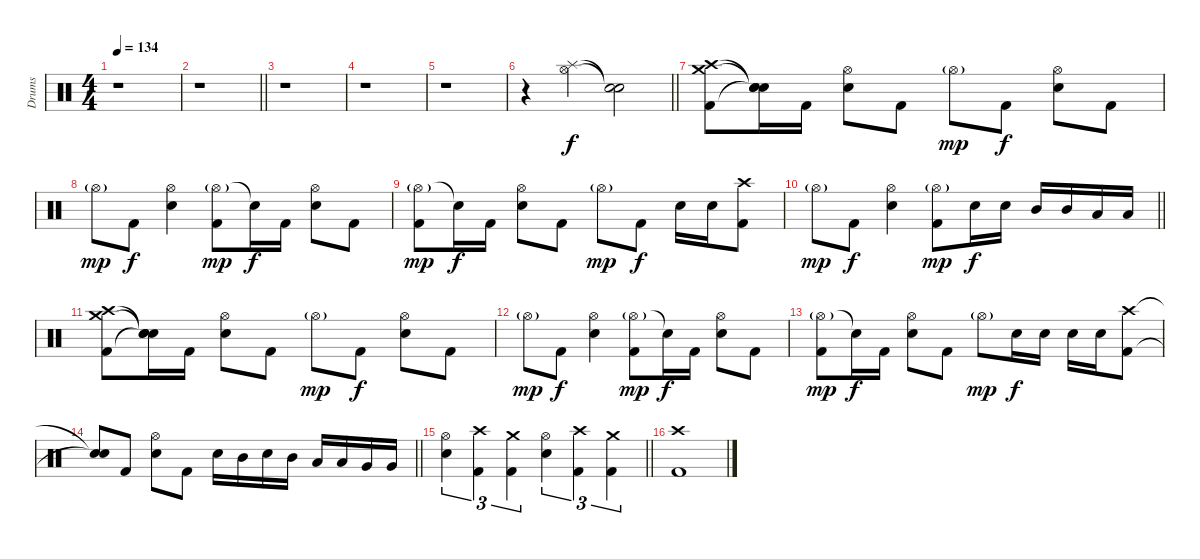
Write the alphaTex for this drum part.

\track ("Drums" "Drums") {instrument percussion}
\staff {score}
\articulation defaults
\ts (4 4)
\tempo 134
\clef neutral
\ks c
r.1{dy f} |
\barLineRight lightlight
r.1 |
r.1 |
r.1 |
r.1 |
\barLineRight lightlight
r.4 ("Splash (hit)" "Hi-Hat (open)").4 ("Snare (hit)"{t} "Snare (hit)"{t}).2 |
("Crash high (hit)" "Crash medium (hit)" "Kick (hit) 2").8 ("Snare (hit)"{t} "Snare (hit)"{t} "Snare (hit)"{t}).16 "Kick (hit) 2".16 ("Hi-Hat (open)" "Electric Snare (hit)").8 "Kick (hit) 2".8 "Hi-Hat (open)"{g}.8{dy mp} "Kick (hit) 2".8{dy f} ("Hi-Hat (open)" "Electric Snare (hit)").8 "Kick (hit) 2".8 |
"Hi-Hat (open)"{g}.8{dy mp} "Kick (hit) 2".8{dy f} ("Hi-Hat (open)" "Electric Snare (hit)").4 ("Hi-Hat (open)"{g} "Kick (hit) 2").8{dy mp} "Snare (hit)"{t}.16{dy f} "Kick (hit) 2".16 ("Hi-Hat (open)" "Electric Snare (hit)").8 "Kick (hit) 2".8 |
("Hi-Hat (open)"{g} "Kick (hit) 2").8{dy mp} "Snare (hit)"{t}.16{dy f} "Kick (hit) 2".16 ("Hi-Hat (open)" "Electric Snare (hit)").8 "Kick (hit) 2".8 "Hi-Hat (open)"{g}.8{dy mp} "Kick (hit) 2".8{dy f} "Electric Snare (hit)".16 "Electric Snare (hit)".16 ("Crash high (hit)" "Kick (hit) 2").8 |
\barLineRight lightlight "Hi-Hat (open)"{g}.8{dy mp} "Kick (hit) 2".8{dy f}
("Hi-Hat (open)" "Electric Snare (hit)").4 ("Hi-Hat (open)"{g} "Kick (hit) 2").8{dy mp} "Electric Snare (hit)".16{dy f} "Electric Snare (hit)".16 "Mid Tom (hit)".16 "Mid Tom (hit)".16 "Low Tom (hit)".16 "Low Tom (hit)".16 |
("Crash high (hit)" "Crash medium (hit)" "Kick (hit) 2").8 ("Snare (hit)"{t} "Snare (hit)"{t} "Snare (hit)"{t}).16 "Kick (hit) 2".16 ("Hi-Hat (open)" "Electric Snare (hit)").8 "Kick (hit) 2".8 "Hi-Hat (open)"{g}.8{dy mp} "Kick (hit) 2".8{dy f} ("Hi-Hat (open)" "Electric Snare (hit)").8 "Kick (hit) 2".8 |
"Hi-Hat (open)"{g}.8{dy mp} "Kick (hit) 2".8{dy f} ("Hi-Hat (open)" "Electric Snare (hit)").4 ("Hi-Hat (open)"{g} "Kick (hit) 2").8{dy mp} "Snare (hit)"{t}.16{dy f} "Kick (hit) 2".16 ("Hi-Hat (open)" "Electric Snare (hit)").8 "Kick (hit) 2".8 |
("Hi-Hat (open)"{g} "Kick (hit) 2").8{dy mp} "Snare (hit)"{t}.16{dy f} "Kick (hit) 2".16 ("Hi-Hat (open)" "Electric Snare (hit)").8 "Kick (hit) 2".8 "Hi-Hat (open)"{g}.8{dy mp} "Electric Snare (hit)".16{dy f} "Electric Snare (hit)".16 "Electric Snare (hit)".16 "Electric Snare (hit)".16 ("Crash high (hit)" "Kick (hit) 2").8 |
\barLineRight lightlight
("Snare (hit)"{t} "Snare (hit)"{t}).8 "Kick (hit) 2".8 ("Hi-Hat (open)" "Electric Snare (hit)").8 "Kick (hit) 2".8 "Electric Snare (hit)".16 "Mid Tom (hit)".16 "Electric Snare (hit)".16 "Mid Tom (hit)".16 "Low Tom (hit)".16 "Low Tom (hit)".16 "Very Low Tom (hit)".16 "Very Low Tom (hit)".16 |
\barLineRight lightlight
("Hi-Hat (open)" "Electric Snare (hit)").4{tu (3 2)} ("Crash high (hit)" "Kick (hit) 2").4{tu (3 2)} ("Crash medium (hit)" "Kick (hit) 2").4{tu (3 2)} ("Hi-Hat (open)" "Electric Snare (hit)").4{tu (3 2)} ("Crash high (hit)" "Kick (hit) 2").4{tu (3 2)} ("Crash medium (hit)" "Kick (hit) 2").4{tu (3 2)} |
("Crash high (hit)" "Kick (hit) 2").1
